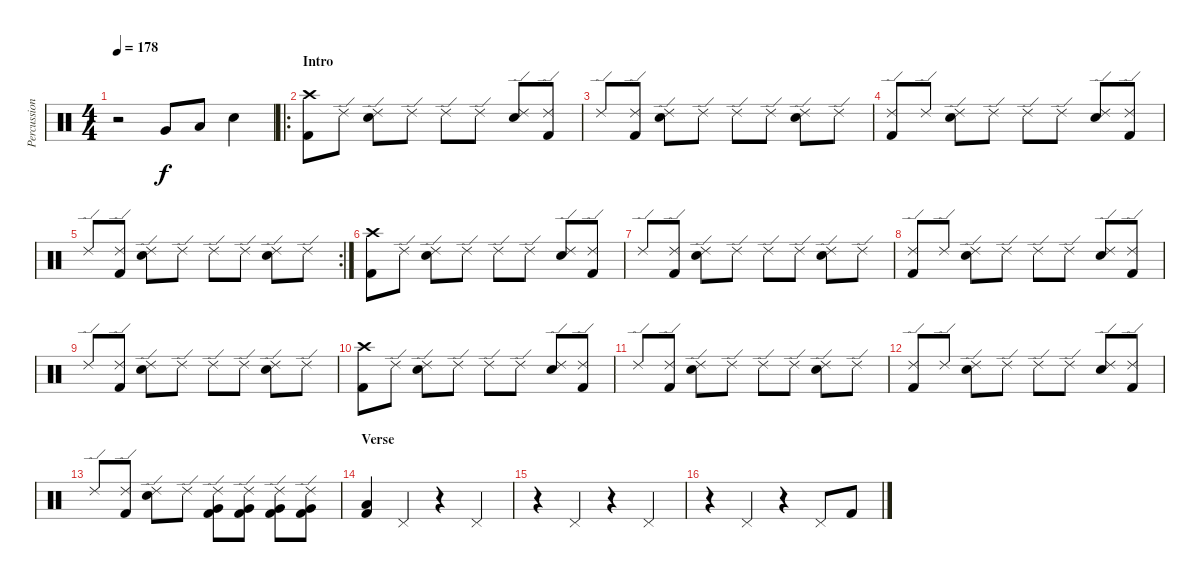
\track ("Percussion" "Percussion") {instrument percussion}
\staff {score}
\articulation defaults
\ts (4 4)
\tempo 178
\clef neutral
\ks c
r.2{dy f} "Very Low Tom (hit)".8 "Low Floor Tom (hit)".8 "Snare (hit) 2".4 |
\ro
\section ("" "Intro")
("Crash high (hit)" "Kick (hit) 2").8 "Ride (edge) 2".8 ("Ride (edge) 2" "Snare (hit) 2").8 "Ride (edge) 2".8 "Ride (edge) 2".8 "Ride (edge) 2".8 ("Ride (edge) 2" "Snare (hit) 2").8 ("Ride (edge) 2" "Kick (hit) 2").8 |
"Ride (edge) 2".8 ("Ride (edge) 2" "Kick (hit) 2").8 ("Ride (edge) 2" "Snare (hit) 2").8 "Ride (edge) 2".8 "Ride (edge) 2".8 "Ride (edge) 2".8 ("Ride (edge) 2" "Snare (hit) 2").8 "Ride (edge) 2".8 |
("Ride (edge) 2" "Kick (hit) 2").8 "Ride (edge) 2".8 ("Ride (edge) 2" "Snare (hit) 2").8 "Ride (edge) 2".8 "Ride (edge) 2".8 "Ride (edge) 2".8 ("Ride (edge) 2" "Snare (hit) 2").8 ("Ride (edge) 2" "Kick (hit) 2").8 |
\rc 2 "Ride (edge) 2".8
("Ride (edge) 2" "Kick (hit) 2").8 ("Ride (edge) 2" "Snare (hit) 2").8 "Ride (edge) 2".8 "Ride (edge) 2".8 "Ride (edge) 2".8 ("Ride (edge) 2" "Snare (hit) 2").8 "Ride (edge) 2".8 |
("Crash high (hit)" "Kick (hit) 2").8 "Ride (edge) 2".8 ("Ride (edge) 2" "Snare (hit) 2").8 "Ride (edge) 2".8 "Ride (edge) 2".8 "Ride (edge) 2".8 ("Ride (edge) 2" "Snare (hit) 2").8 ("Ride (edge) 2" "Kick (hit) 2").8 |
"Ride (edge) 2".8 ("Ride (edge) 2" "Kick (hit) 2").8 ("Ride (edge) 2" "Snare (hit) 2").8 "Ride (edge) 2".8 "Ride (edge) 2".8 "Ride (edge) 2".8 ("Ride (edge) 2" "Snare (hit) 2").8 "Ride (edge) 2".8 |
("Ride (edge) 2" "Kick (hit) 2").8 "Ride (edge) 2".8 ("Ride (edge) 2" "Snare (hit) 2").8 "Ride (edge) 2".8 "Ride (edge) 2".8 "Ride (edge) 2".8 ("Ride (edge) 2" "Snare (hit) 2").8 ("Ride (edge) 2" "Kick (hit) 2").8 |
"Ride (edge) 2".8 ("Ride (edge) 2" "Kick (hit) 2").8 ("Ride (edge) 2" "Snare (hit) 2").8 "Ride (edge) 2".8 "Ride (edge) 2".8 "Ride (edge) 2".8 ("Ride (edge) 2" "Snare (hit) 2").8 "Ride (edge) 2".8 |
("Crash high (hit)" "Kick (hit) 2").8 "Ride (edge) 2".8 ("Ride (edge) 2" "Snare (hit) 2").8 "Ride (edge) 2".8 "Ride (edge) 2".8 "Ride (edge) 2".8 ("Ride (edge) 2" "Snare (hit) 2").8 ("Ride (edge) 2" "Kick (hit) 2").8 |
"Ride (edge) 2".8 ("Ride (edge) 2" "Kick (hit) 2").8 ("Ride (edge) 2" "Snare (hit) 2").8 "Ride (edge) 2".8 "Ride (edge) 2".8 "Ride (edge) 2".8 ("Ride (edge) 2" "Snare (hit) 2").8 "Ride (edge) 2".8 |
("Ride (edge) 2" "Kick (hit) 2").8 "Ride (edge) 2".8 ("Ride (edge) 2" "Snare (hit) 2").8 "Ride (edge) 2".8 "Ride (edge) 2".8 "Ride (edge) 2".8 ("Ride (edge) 2" "Snare (hit) 2").8 ("Ride (edge) 2" "Kick (hit) 2").8 |
"Ride (edge) 2".8 ("Ride (edge) 2" "Kick (hit) 2").8 ("Ride (edge) 2" "Snare (hit) 2").8 "Ride (edge) 2".8 ("Ride (edge) 2" "Very Low Tom (hit)" "Kick (hit) 2").8 ("Ride (edge) 2" "Very Low Tom (hit)" "Kick (hit) 2").8 ("Ride (edge) 2" "Very Low Tom (hit)" "Kick (hit) 2").8 ("Ride (edge) 2" "Very Low Tom (hit)" "Kick (hit) 2").8 |
\section ("" "Verse")
("Low Tom (hit)" "Kick (hit) 2").4 "Pedal Hi-Hat (hit)".4 r.4 "Pedal Hi-Hat (hit)".4 |
r.4 "Pedal Hi-Hat (hit)".4 r.4 "Pedal Hi-Hat (hit)".4 |
r.4 "Pedal Hi-Hat (hit)".4 r.4 "Pedal Hi-Hat (hit)".8 "Kick (hit) 2".8
